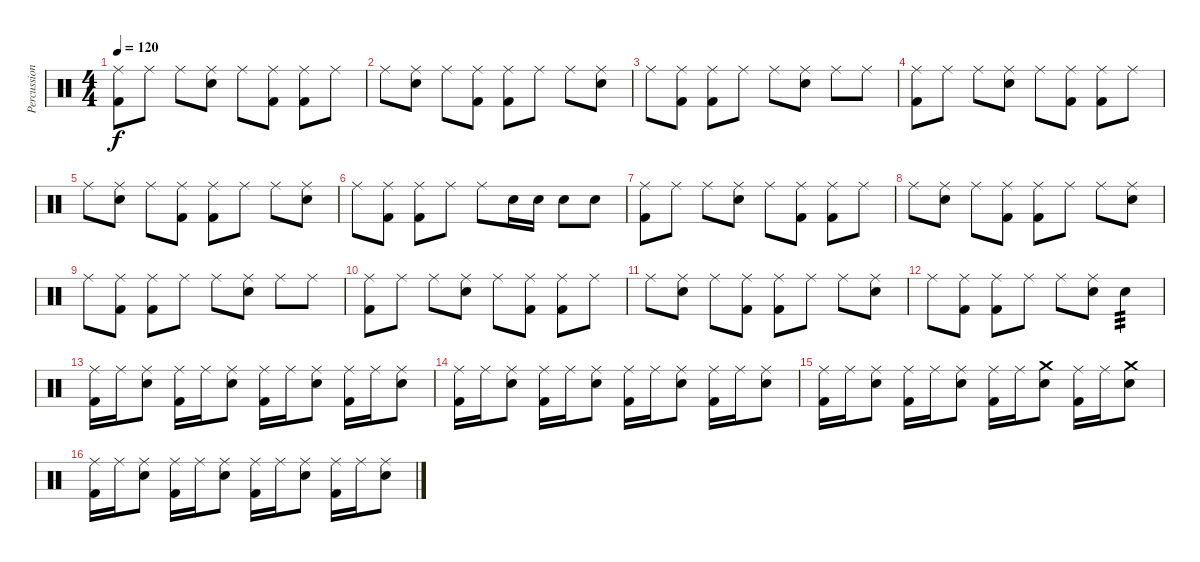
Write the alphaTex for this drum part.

\track ("Percussions" "Percussion") {instrument percussion}
\staff {score}
\articulation defaults
\ts (4 4)
\tempo 120
\clef neutral
\ks c
("Kick (hit) 2" "Ride (middle)").8{dy f} "Ride (middle)".8 "Ride (middle)".8 ("Electric Snare (hit)" "Ride (middle)").8 "Ride (middle)".8 ("Kick (hit) 2" "Ride (middle)").8 ("Kick (hit) 2" "Ride (middle)").8 "Ride (middle)".8 |
"Ride (middle)".8 ("Electric Snare (hit)" "Ride (middle)").8 "Ride (middle)".8 ("Kick (hit) 2" "Ride (middle)").8 ("Kick (hit) 2" "Ride (middle)").8 "Ride (middle)".8 "Ride (middle)".8 ("Electric Snare (hit)" "Ride (middle)").8 |
"Ride (middle)".8 ("Kick (hit) 2" "Ride (middle)").8 ("Kick (hit) 2" "Ride (middle)").8 "Ride (middle)".8 "Ride (middle)".8 ("Electric Snare (hit)" "Ride (middle)").8 "Ride (middle)".8 "Ride (middle)".8 |
("Kick (hit) 2" "Ride (middle)").8 "Ride (middle)".8 "Ride (middle)".8 ("Electric Snare (hit)" "Ride (middle)").8 "Ride (middle)".8 ("Kick (hit) 2" "Ride (middle)").8 ("Kick (hit) 2" "Ride (middle)").8 "Ride (middle)".8 |
"Ride (middle)".8 ("Electric Snare (hit)" "Ride (middle)").8 "Ride (middle)".8 ("Kick (hit) 2" "Ride (middle)").8 ("Kick (hit) 2" "Ride (middle)").8 "Ride (middle)".8 "Ride (middle)".8 ("Electric Snare (hit)" "Ride (middle)").8 |
"Ride (middle)".8 ("Kick (hit) 2" "Ride (middle)").8 ("Kick (hit) 2" "Ride (middle)").8 "Ride (middle)".8 "Ride (middle)".8 "Electric Snare (hit)".16 "Electric Snare (hit)".16 "Snare (hit) 2".8 "Snare (hit) 2".8 |
("Kick (hit) 2" "Ride (middle)").8 "Ride (middle)".8 "Ride (middle)".8 ("Electric Snare (hit)" "Ride (middle)").8 "Ride (middle)".8 ("Kick (hit) 2" "Ride (middle)").8 ("Kick (hit) 2" "Ride (middle)").8 "Ride (middle)".8 |
"Ride (middle)".8 ("Electric Snare (hit)" "Ride (middle)").8 "Ride (middle)".8 ("Kick (hit) 2" "Ride (middle)").8 ("Kick (hit) 2" "Ride (middle)").8 "Ride (middle)".8 "Ride (middle)".8 ("Electric Snare (hit)" "Ride (middle)").8 |
"Ride (middle)".8 ("Kick (hit) 2" "Ride (middle)").8 ("Kick (hit) 2" "Ride (middle)").8 "Ride (middle)".8 "Ride (middle)".8 ("Electric Snare (hit)" "Ride (middle)").8 "Ride (middle)".8 "Ride (middle)".8 |
("Kick (hit) 2" "Ride (middle)").8 "Ride (middle)".8 "Ride (middle)".8 ("Electric Snare (hit)" "Ride (middle)").8 "Ride (middle)".8 ("Kick (hit) 2" "Ride (middle)").8 ("Kick (hit) 2" "Ride (middle)").8 "Ride (middle)".8 |
"Ride (middle)".8 ("Electric Snare (hit)" "Ride (middle)").8 "Ride (middle)".8 ("Kick (hit) 2" "Ride (middle)").8 ("Kick (hit) 2" "Ride (middle)").8 "Ride (middle)".8 "Ride (middle)".8 ("Electric Snare (hit)" "Ride (middle)").8 |
"Ride (middle)".8 ("Kick (hit) 2" "Ride (middle)").8 ("Kick (hit) 2" "Ride (middle)").8 "Ride (middle)".8 "Ride (middle)".8 ("Electric Snare (hit)" "Ride (middle)").8 "Electric Snare (hit)".4{tp 3} |
("Ride (middle)" "Kick (hit) 2").16 "Ride (middle)".16 ("Ride (middle)" "Electric Snare (hit)").8 ("Ride (middle)" "Kick (hit) 2").16 "Ride (middle)".16 ("Ride (middle)" "Electric Snare (hit)").8 ("Ride (middle)" "Kick (hit) 2").16 "Ride (middle)".16 ("Ride (middle)" "Electric Snare (hit)").8 ("Ride (middle)" "Kick (hit) 2").16 "Ride (middle)".16 ("Ride (middle)" "Electric Snare (hit)").8 |
("Ride (middle)" "Kick (hit) 2").16 "Ride (middle)".16 ("Ride (middle)" "Electric Snare (hit)").8 ("Ride (middle)" "Kick (hit) 2").16 "Ride (middle)".16 ("Ride (middle)" "Electric Snare (hit)").8 ("Ride (middle)" "Kick (hit) 2").16 "Ride (middle)".16 ("Ride (middle)" "Electric Snare (hit)").8 ("Ride (middle)" "Kick (hit) 2").16 "Ride (middle)".16 ("Ride (middle)" "Electric Snare (hit)").8 |
("Ride (middle)" "Kick (hit) 2").16 "Ride (middle)".16 ("Ride (middle)" "Electric Snare (hit)").8 ("Ride (middle)" "Kick (hit) 2").16 "Ride (middle)".16 ("Ride (middle)" "Electric Snare (hit)").8 ("Ride (middle)" "Kick (hit) 2").16 "Ride (middle)".16 ("Crash medium (hit)" "Electric Snare (hit)").8 ("Ride (middle)" "Kick (hit) 2").16 "Ride (middle)".16 ("Crash medium (hit)" "Electric Snare (hit)").8 |
("Ride (middle)" "Kick (hit) 2").16 "Ride (middle)".16 ("Ride (middle)" "Electric Snare (hit)").8 ("Ride (middle)" "Kick (hit) 2").16 "Ride (middle)".16 ("Ride (middle)" "Electric Snare (hit)").8 ("Ride (middle)" "Kick (hit) 2").16 "Ride (middle)".16 ("Ride (middle)" "Electric Snare (hit)").8 ("Ride (middle)" "Kick (hit) 2").16 "Ride (middle)".16 ("Ride (middle)" "Electric Snare (hit)").8
